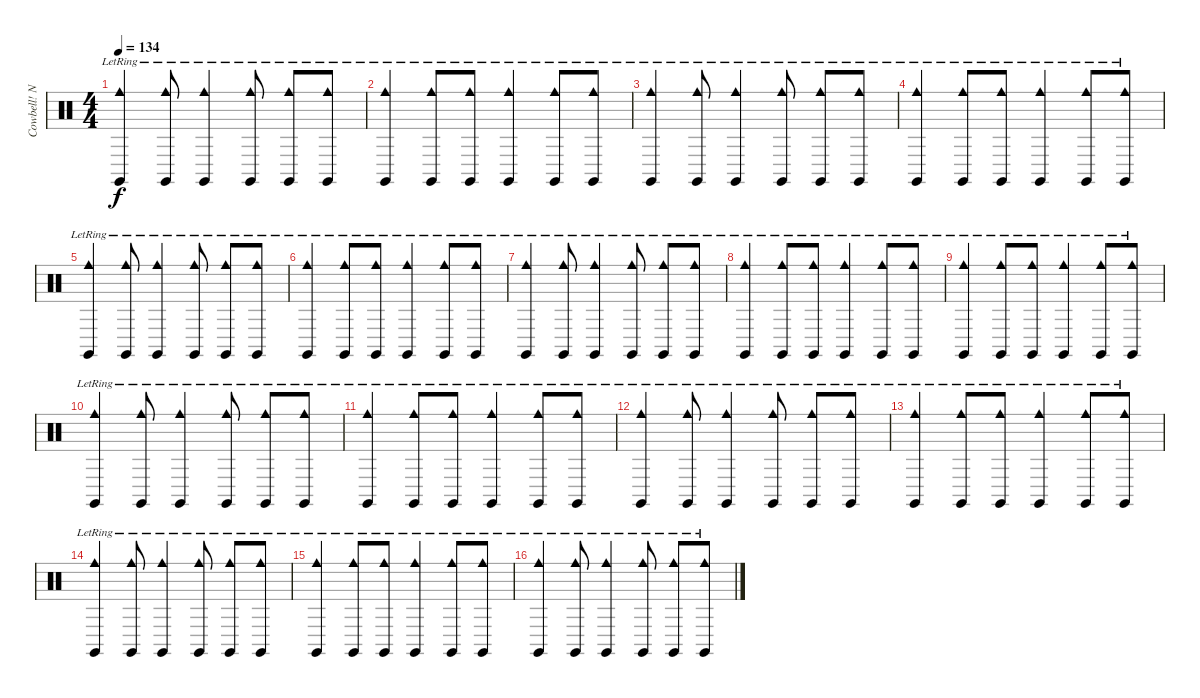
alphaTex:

\track ("Cowbell! Need More Cowbell!" "Cowbell! N") {instrument percussion}
\staff {score}
\articulation defaults
\ts (4 4)
\tempo 134
\clef neutral
\ks c
("Cowbell medium (hit)"{lr} "Claves (hit)").4{dy f} ("Cowbell medium (hit)"{lr} "Claves (hit)").8 ("Cowbell medium (hit)"{lr} "Claves (hit)").4 ("Cowbell medium (hit)"{lr} "Claves (hit)").8 ("Cowbell medium (hit)"{lr} "Claves (hit)").8 ("Cowbell medium (hit)"{lr} "Claves (hit)").8 |
("Cowbell medium (hit)"{lr} "Claves (hit)").4 ("Cowbell medium (hit)"{lr} "Claves (hit)").8 ("Cowbell medium (hit)"{lr} "Claves (hit)").8 ("Cowbell medium (hit)"{lr} "Claves (hit)").4 ("Cowbell medium (hit)"{lr} "Claves (hit)").8 ("Cowbell medium (hit)"{lr} "Claves (hit)").8 |
("Cowbell medium (hit)"{lr} "Claves (hit)").4 ("Cowbell medium (hit)"{lr} "Claves (hit)").8 ("Cowbell medium (hit)"{lr} "Claves (hit)").4 ("Cowbell medium (hit)"{lr} "Claves (hit)").8 ("Cowbell medium (hit)"{lr} "Claves (hit)").8 ("Cowbell medium (hit)"{lr} "Claves (hit)").8 |
("Cowbell medium (hit)"{lr} "Claves (hit)").4 ("Cowbell medium (hit)"{lr} "Claves (hit)").8 ("Cowbell medium (hit)"{lr} "Claves (hit)").8 ("Cowbell medium (hit)"{lr} "Claves (hit)").4 ("Cowbell medium (hit)"{lr} "Claves (hit)").8 ("Cowbell medium (hit)"{lr} "Claves (hit)").8 |
("Cowbell medium (hit)"{lr} "Claves (hit)").4 ("Cowbell medium (hit)"{lr} "Claves (hit)").8 ("Cowbell medium (hit)"{lr} "Claves (hit)").4 ("Cowbell medium (hit)"{lr} "Claves (hit)").8 ("Cowbell medium (hit)"{lr} "Claves (hit)").8 ("Cowbell medium (hit)"{lr} "Claves (hit)").8 |
("Cowbell medium (hit)"{lr} "Claves (hit)").4 ("Cowbell medium (hit)"{lr} "Claves (hit)").8 ("Cowbell medium (hit)"{lr} "Claves (hit)").8 ("Cowbell medium (hit)"{lr} "Claves (hit)").4 ("Cowbell medium (hit)"{lr} "Claves (hit)").8 ("Cowbell medium (hit)"{lr} "Claves (hit)").8 |
("Cowbell medium (hit)"{lr} "Claves (hit)").4 ("Cowbell medium (hit)"{lr} "Claves (hit)").8 ("Cowbell medium (hit)"{lr} "Claves (hit)").4 ("Cowbell medium (hit)"{lr} "Claves (hit)").8 ("Cowbell medium (hit)"{lr} "Claves (hit)").8 ("Cowbell medium (hit)"{lr} "Claves (hit)").8 |
("Cowbell medium (hit)"{lr} "Claves (hit)").4 ("Cowbell medium (hit)"{lr} "Claves (hit)").8 ("Cowbell medium (hit)"{lr} "Claves (hit)").8 ("Cowbell medium (hit)"{lr} "Claves (hit)").4 ("Cowbell medium (hit)"{lr} "Claves (hit)").8 ("Cowbell medium (hit)"{lr} "Claves (hit)").8 |
("Cowbell medium (hit)"{lr} "Claves (hit)").4 ("Cowbell medium (hit)"{lr} "Claves (hit)").8 ("Cowbell medium (hit)"{lr} "Claves (hit)").8 ("Cowbell medium (hit)"{lr} "Claves (hit)").4 ("Cowbell medium (hit)"{lr} "Claves (hit)").8 ("Cowbell medium (hit)"{lr} "Claves (hit)").8 |
("Cowbell medium (hit)"{lr} "Claves (hit)").4 ("Cowbell medium (hit)"{lr} "Claves (hit)").8 ("Cowbell medium (hit)"{lr} "Claves (hit)").4 ("Cowbell medium (hit)"{lr} "Claves (hit)").8 ("Cowbell medium (hit)"{lr} "Claves (hit)").8 ("Cowbell medium (hit)"{lr} "Claves (hit)").8 |
("Cowbell medium (hit)"{lr} "Claves (hit)").4 ("Cowbell medium (hit)"{lr} "Claves (hit)").8 ("Cowbell medium (hit)"{lr} "Claves (hit)").8 ("Cowbell medium (hit)"{lr} "Claves (hit)").4 ("Cowbell medium (hit)"{lr} "Claves (hit)").8 ("Cowbell medium (hit)"{lr} "Claves (hit)").8 |
("Cowbell medium (hit)"{lr} "Claves (hit)").4 ("Cowbell medium (hit)"{lr} "Claves (hit)").8 ("Cowbell medium (hit)"{lr} "Claves (hit)").4 ("Cowbell medium (hit)"{lr} "Claves (hit)").8 ("Cowbell medium (hit)"{lr} "Claves (hit)").8 ("Cowbell medium (hit)"{lr} "Claves (hit)").8 |
("Cowbell medium (hit)"{lr} "Claves (hit)").4 ("Cowbell medium (hit)"{lr} "Claves (hit)").8 ("Cowbell medium (hit)"{lr} "Claves (hit)").8 ("Cowbell medium (hit)"{lr} "Claves (hit)").4 ("Cowbell medium (hit)"{lr} "Claves (hit)").8 ("Cowbell medium (hit)"{lr} "Claves (hit)").8 |
("Cowbell medium (hit)"{lr} "Claves (hit)").4 ("Cowbell medium (hit)"{lr} "Claves (hit)").8 ("Cowbell medium (hit)"{lr} "Claves (hit)").4 ("Cowbell medium (hit)"{lr} "Claves (hit)").8 ("Cowbell medium (hit)"{lr} "Claves (hit)").8 ("Cowbell medium (hit)"{lr} "Claves (hit)").8 |
("Cowbell medium (hit)"{lr} "Claves (hit)").4 ("Cowbell medium (hit)"{lr} "Claves (hit)").8 ("Cowbell medium (hit)"{lr} "Claves (hit)").8 ("Cowbell medium (hit)"{lr} "Claves (hit)").4 ("Cowbell medium (hit)"{lr} "Claves (hit)").8 ("Cowbell medium (hit)"{lr} "Claves (hit)").8 |
("Cowbell medium (hit)"{lr} "Claves (hit)").4 ("Cowbell medium (hit)"{lr} "Claves (hit)").8 ("Cowbell medium (hit)"{lr} "Claves (hit)").4 ("Cowbell medium (hit)"{lr} "Claves (hit)").8 ("Cowbell medium (hit)"{lr} "Claves (hit)").8 ("Cowbell medium (hit)"{lr} "Claves (hit)").8
